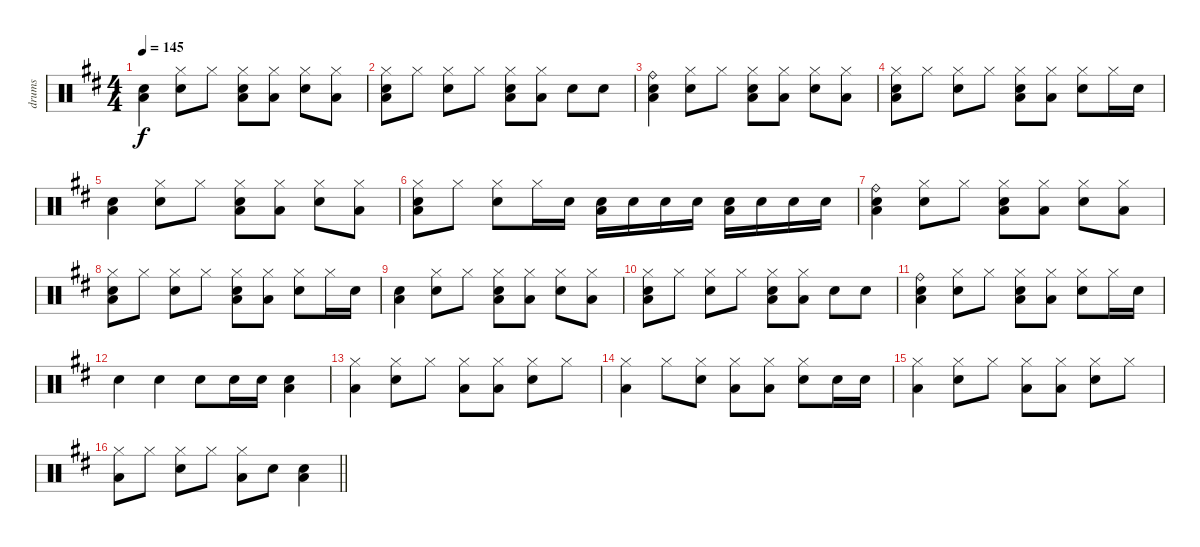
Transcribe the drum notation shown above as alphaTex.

\track ("drums" "drums") {instrument percussion}
\staff {score}
\articulation defaults
\ts (4 4)
\tempo 145
\clef neutral
\ks d
("Electric Snare (hit)" "Low Floor Tom (hit)").4{dy f} ("Hi-Hat (closed)" "Electric Snare (hit)").8 "Hi-Hat (closed)".8 ("Hi-Hat (closed)" "Electric Snare (hit)" "Low Floor Tom (hit)").8 ("Hi-Hat (closed)" "Low Floor Tom (hit)").8 ("Hi-Hat (closed)" "Electric Snare (hit)").8 ("Hi-Hat (closed)" "Low Floor Tom (hit)").8 |
("Hi-Hat (closed)" "Electric Snare (hit)" "Low Floor Tom (hit)").8 "Hi-Hat (closed)".8 ("Hi-Hat (closed)" "Electric Snare (hit)").8 "Hi-Hat (closed)".8 ("Hi-Hat (closed)" "Electric Snare (hit)" "Low Floor Tom (hit)").8 ("Hi-Hat (closed)" "Low Floor Tom (hit)").8 "Electric Snare (hit)".8 "Electric Snare (hit)".8 |
("Ride (bell)" "Electric Snare (hit)" "Low Floor Tom (hit)").4 ("Hi-Hat (closed)" "Electric Snare (hit)").8 "Hi-Hat (closed)".8 ("Hi-Hat (closed)" "Electric Snare (hit)" "Low Floor Tom (hit)").8 ("Hi-Hat (closed)" "Low Floor Tom (hit)").8 ("Hi-Hat (closed)" "Electric Snare (hit)").8 ("Hi-Hat (closed)" "Low Floor Tom (hit)").8 |
("Hi-Hat (closed)" "Electric Snare (hit)" "Low Floor Tom (hit)").8 "Hi-Hat (closed)".8 ("Hi-Hat (closed)" "Electric Snare (hit)").8 "Hi-Hat (closed)".8 ("Hi-Hat (closed)" "Electric Snare (hit)" "Low Floor Tom (hit)").8 ("Hi-Hat (closed)" "Low Floor Tom (hit)").8 ("Hi-Hat (closed)" "Electric Snare (hit)").8 "Hi-Hat (closed)".16 "Electric Snare (hit)".16 |
("Electric Snare (hit)" "Low Floor Tom (hit)").4 ("Hi-Hat (closed)" "Electric Snare (hit)").8 "Hi-Hat (closed)".8 ("Hi-Hat (closed)" "Electric Snare (hit)" "Low Floor Tom (hit)").8 ("Hi-Hat (closed)" "Low Floor Tom (hit)").8 ("Hi-Hat (closed)" "Electric Snare (hit)").8 ("Hi-Hat (closed)" "Low Floor Tom (hit)").8 |
("Hi-Hat (closed)" "Electric Snare (hit)" "Low Floor Tom (hit)").8 "Hi-Hat (closed)".8 ("Hi-Hat (closed)" "Electric Snare (hit)").8 "Hi-Hat (closed)".16 "Electric Snare (hit)".16 ("Electric Snare (hit)" "Low Floor Tom (hit)").16 "Electric Snare (hit)".16 "Electric Snare (hit)".16 "Electric Snare (hit)".16 ("Electric Snare (hit)" "Low Floor Tom (hit)").16 "Electric Snare (hit)".16 "Electric Snare (hit)".16 "Electric Snare (hit)".16 |
("Ride (bell)" "Electric Snare (hit)" "Low Floor Tom (hit)").4 ("Hi-Hat (closed)" "Electric Snare (hit)").8 "Hi-Hat (closed)".8 ("Hi-Hat (closed)" "Electric Snare (hit)" "Low Floor Tom (hit)").8 ("Hi-Hat (closed)" "Low Floor Tom (hit)").8 ("Hi-Hat (closed)" "Electric Snare (hit)").8 ("Hi-Hat (closed)" "Low Floor Tom (hit)").8 |
("Hi-Hat (closed)" "Electric Snare (hit)" "Low Floor Tom (hit)").8 "Hi-Hat (closed)".8 ("Hi-Hat (closed)" "Electric Snare (hit)").8 "Hi-Hat (closed)".8 ("Hi-Hat (closed)" "Electric Snare (hit)" "Low Floor Tom (hit)").8 ("Hi-Hat (closed)" "Low Floor Tom (hit)").8 ("Hi-Hat (closed)" "Electric Snare (hit)").8 "Hi-Hat (closed)".16 "Electric Snare (hit)".16 |
("Electric Snare (hit)" "Low Floor Tom (hit)").4 ("Hi-Hat (closed)" "Electric Snare (hit)").8 "Hi-Hat (closed)".8 ("Hi-Hat (closed)" "Electric Snare (hit)" "Low Floor Tom (hit)").8 ("Hi-Hat (closed)" "Low Floor Tom (hit)").8 ("Hi-Hat (closed)" "Electric Snare (hit)").8 ("Hi-Hat (closed)" "Low Floor Tom (hit)").8 |
("Hi-Hat (closed)" "Electric Snare (hit)" "Low Floor Tom (hit)").8 "Hi-Hat (closed)".8 ("Hi-Hat (closed)" "Electric Snare (hit)").8 "Hi-Hat (closed)".8 ("Hi-Hat (closed)" "Electric Snare (hit)" "Low Floor Tom (hit)").8 ("Hi-Hat (closed)" "Low Floor Tom (hit)").8 "Electric Snare (hit)".8 "Electric Snare (hit)".8 |
("Ride (bell)" "Electric Snare (hit)" "Low Floor Tom (hit)").4 ("Hi-Hat (closed)" "Electric Snare (hit)").8 "Hi-Hat (closed)".8 ("Hi-Hat (closed)" "Electric Snare (hit)" "Low Floor Tom (hit)").8 ("Hi-Hat (closed)" "Low Floor Tom (hit)").8 ("Hi-Hat (closed)" "Electric Snare (hit)").8 "Hi-Hat (closed)".16 "Electric Snare (hit)".16 |
"Electric Snare (hit)".4 "Electric Snare (hit)".4 "Electric Snare (hit)".8 "Electric Snare (hit)".16 "Electric Snare (hit)".16 ("Electric Snare (hit)" "Low Floor Tom (hit)").4 |
("Hi-Hat (closed)" "Low Floor Tom (hit)").4 ("Hi-Hat (closed)" "Electric Snare (hit)").8 "Hi-Hat (closed)".8 ("Hi-Hat (closed)" "Low Floor Tom (hit)").8 ("Hi-Hat (closed)" "Low Floor Tom (hit)").8 ("Hi-Hat (closed)" "Electric Snare (hit)").8 "Hi-Hat (closed)".8 |
("Hi-Hat (closed)" "Low Floor Tom (hit)").4 "Hi-Hat (closed)".8 ("Hi-Hat (closed)" "Electric Snare (hit)").8 ("Hi-Hat (closed)" "Low Floor Tom (hit)").8 ("Hi-Hat (closed)" "Low Floor Tom (hit)").8 ("Hi-Hat (closed)" "Electric Snare (hit)").8 "Electric Snare (hit)".16 "Electric Snare (hit)".16 |
("Hi-Hat (closed)" "Low Floor Tom (hit)").4 ("Hi-Hat (closed)" "Electric Snare (hit)").8 "Hi-Hat (closed)".8 ("Hi-Hat (closed)" "Low Floor Tom (hit)").8 ("Hi-Hat (closed)" "Low Floor Tom (hit)").8 ("Hi-Hat (closed)" "Electric Snare (hit)").8 "Hi-Hat (closed)".8 |
\barLineRight lightlight
("Hi-Hat (closed)" "Low Floor Tom (hit)").8 "Hi-Hat (closed)".8 ("Hi-Hat (closed)" "Electric Snare (hit)").8 "Hi-Hat (closed)".8 ("Hi-Hat (closed)" "Low Floor Tom (hit)").8 "Electric Snare (hit)".8 ("Electric Snare (hit)" "Low Floor Tom (hit)").4
